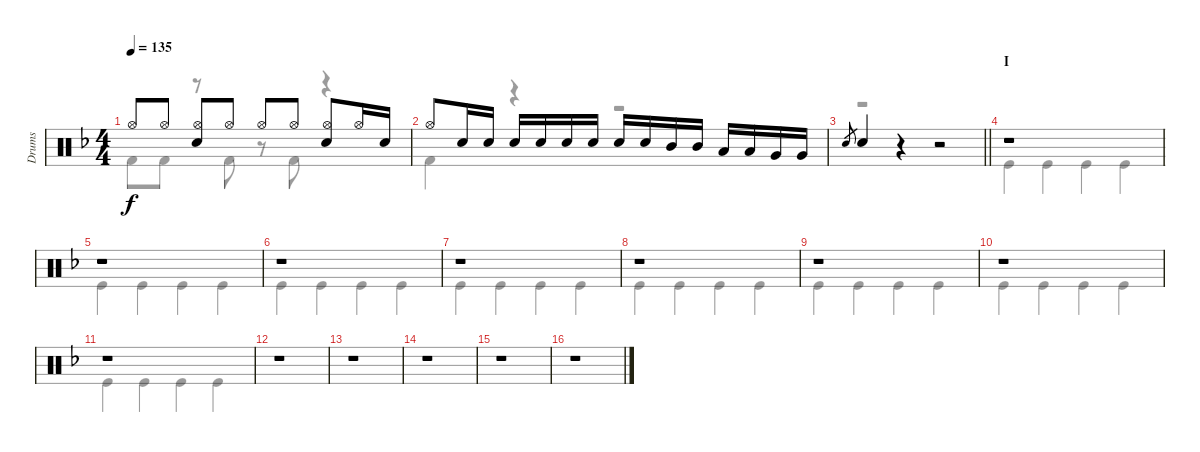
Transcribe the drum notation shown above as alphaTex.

\track ("Drums" "Drums") {instrument percussion}
\staff {score}
\articulation defaults
\voice
\ts (4 4)
\tempo 135
\clef neutral
\ks f "Hi-Hat (open)".8{dy f} "Hi-Hat (open)".8
("Hi-Hat (open)" "Snare (hit) 2").8 "Hi-Hat (open)".8 "Hi-Hat (open)".8 "Hi-Hat (open)".8 ("Hi-Hat (open)" "Snare (hit) 2").8 "Hi-Hat (open)".16 "Snare (hit) 2".16 |
"Hi-Hat (open)".8 "Snare (hit) 2".16 "Snare (hit) 2".16 "Snare (hit) 2".16 "Snare (hit) 2".16 "Snare (hit) 2".16 "Snare (hit) 2".16 "Snare (hit) 2".16 "Snare (hit) 2".16 "Mid Tom (hit)".16 "Mid Tom (hit)".16 "Low Tom (hit)".16 "Low Tom (hit)".16 "Very Low Tom (hit)".16 "Very Low Tom (hit)".16 |
\barLineRight lightlight "Snare (hit) 2".8{gr} "Snare (hit) 2".4
r.4 r.2 |
\section ("" "I")
r.1 |
r.1 |
r.1 |
r.1 |
r.1 |
r.1 |
r.1 |
r.1 |
r.1 |
r.1 |
r.1 |
r.1 |
r.1
\voice
\clef neutral
\ottava regular
\simile none
\ks f "Kick (hit) 2".8{dy f} "Kick (hit) 2".8
r.8 "Kick (hit) 2".8 r.8 "Kick (hit) 2".8 r.4 |
"Kick (hit) 2".4 r.4 r.2 |
\barLineRight lightlight
r.1 |
"Kick (hit)".4 "Kick (hit)".4 "Kick (hit)".4 "Kick (hit)".4 |
"Kick (hit)".4 "Kick (hit)".4 "Kick (hit)".4 "Kick (hit)".4 |
"Kick (hit)".4 "Kick (hit)".4 "Kick (hit)".4 "Kick (hit)".4 |
"Kick (hit)".4 "Kick (hit)".4 "Kick (hit)".4 "Kick (hit)".4 |
"Kick (hit)".4 "Kick (hit)".4 "Kick (hit)".4 "Kick (hit)".4 |
"Kick (hit)".4 "Kick (hit)".4 "Kick (hit)".4 "Kick (hit)".4 |
"Kick (hit)".4 "Kick (hit)".4 "Kick (hit)".4 "Kick (hit)".4 |
"Kick (hit)".4 "Kick (hit)".4 "Kick (hit)".4 "Kick (hit)".4 |
|
|
|
|
